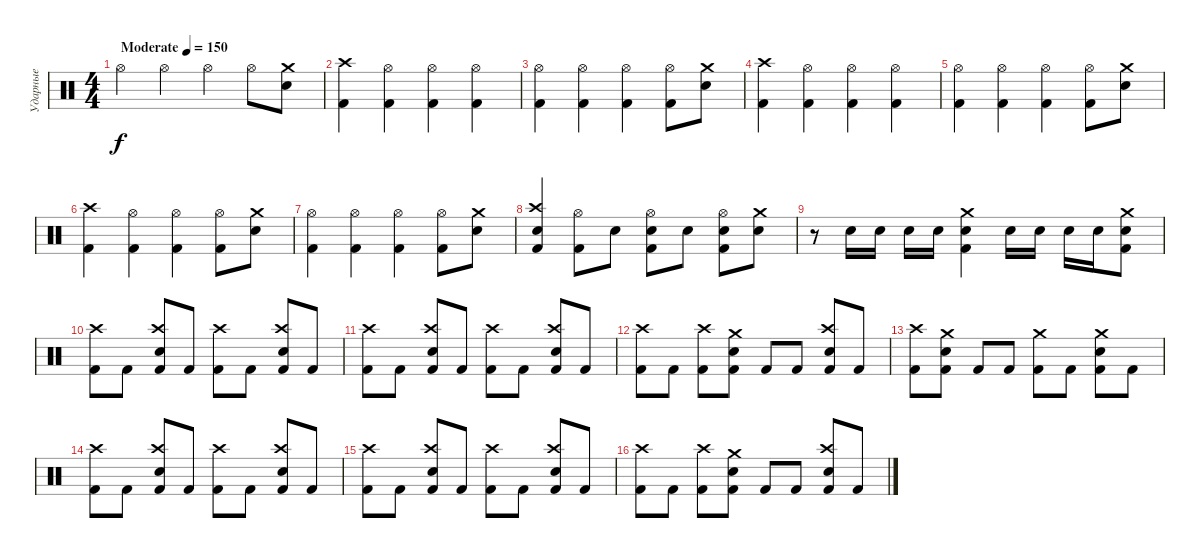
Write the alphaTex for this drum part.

\track ("Ударные" "Ударные") {instrument percussion}
\staff {score}
\articulation defaults
\ts (4 4)
\tempo (150 "Moderate")
\clef neutral
\ks c "Hi-Hat (open)".4{dy f} "Hi-Hat (open)".4 "Hi-Hat (open)".4 "Hi-Hat (open)".8
("Crash medium (hit)" "Electric Snare (hit)").8 |
("Crash high (hit)" "Kick (hit) 2").4 ("Hi-Hat (open)" "Kick (hit) 2").4 ("Hi-Hat (open)" "Kick (hit) 2").4 ("Hi-Hat (open)" "Kick (hit) 2").4 |
("Hi-Hat (open)" "Kick (hit) 2").4 ("Hi-Hat (open)" "Kick (hit) 2").4 ("Hi-Hat (open)" "Kick (hit) 2").4 ("Hi-Hat (open)" "Kick (hit) 2").8 ("Crash medium (hit)" "Electric Snare (hit)").8 |
("Crash high (hit)" "Kick (hit) 2").4 ("Hi-Hat (open)" "Kick (hit) 2").4 ("Hi-Hat (open)" "Kick (hit) 2").4 ("Hi-Hat (open)" "Kick (hit) 2").4 |
("Hi-Hat (open)" "Kick (hit) 2").4 ("Hi-Hat (open)" "Kick (hit) 2").4 ("Hi-Hat (open)" "Kick (hit) 2").4 ("Hi-Hat (open)" "Kick (hit) 2").8 ("Crash medium (hit)" "Electric Snare (hit)").8 |
("Crash high (hit)" "Kick (hit) 2").4 ("Hi-Hat (open)" "Kick (hit) 2").4 ("Hi-Hat (open)" "Kick (hit) 2").4 ("Hi-Hat (open)" "Kick (hit) 2").8 ("Crash medium (hit)" "Electric Snare (hit)").8 |
("Hi-Hat (open)" "Kick (hit) 2").4 ("Hi-Hat (open)" "Kick (hit) 2").4 ("Hi-Hat (open)" "Kick (hit) 2").4 ("Hi-Hat (open)" "Kick (hit) 2").8 ("Crash medium (hit)" "Electric Snare (hit)").8 |
("Crash high (hit)" "Electric Snare (hit)" "Kick (hit) 2").4 ("Hi-Hat (open)" "Kick (hit) 2").8 "Electric Snare (hit)".8 ("Hi-Hat (open)" "Electric Snare (hit)" "Kick (hit) 2").8 "Electric Snare (hit)".8 ("Hi-Hat (open)" "Electric Snare (hit)" "Kick (hit) 2").8 ("Crash medium (hit)" "Electric Snare (hit)").8 |
r.8 "Electric Snare (hit)".16 "Electric Snare (hit)".16 "Electric Snare (hit)".16 "Electric Snare (hit)".16 ("Crash medium (hit)" "Electric Snare (hit)" "Kick (hit) 2").4 "Electric Snare (hit)".16 "Electric Snare (hit)".16 "Electric Snare (hit)".16 "Electric Snare (hit)".16 ("Crash medium (hit)" "Electric Snare (hit)" "Kick (hit) 2").8 |
("Crash high (hit)" "Kick (hit) 2").8 "Kick (hit) 2".8 ("Crash high (hit)" "Electric Snare (hit)" "Kick (hit) 2").8 "Kick (hit) 2".8 ("Crash high (hit)" "Kick (hit) 2").8 "Kick (hit) 2".8 ("Crash high (hit)" "Electric Snare (hit)" "Kick (hit) 2").8 "Kick (hit) 2".8 |
("Crash high (hit)" "Kick (hit) 2").8 "Kick (hit) 2".8 ("Crash high (hit)" "Electric Snare (hit)" "Kick (hit) 2").8 "Kick (hit) 2".8 ("Crash high (hit)" "Kick (hit) 2").8 "Kick (hit) 2".8 ("Crash high (hit)" "Electric Snare (hit)" "Kick (hit) 2").8 "Kick (hit) 2".8 |
("Crash high (hit)" "Kick (hit) 2").8 "Kick (hit) 2".8 ("Crash high (hit)" "Kick (hit) 2").8 ("Crash medium (hit)" "Electric Snare (hit)" "Kick (hit) 2").8 "Kick (hit) 2".8 "Kick (hit) 2".8 ("Crash high (hit)" "Electric Snare (hit)" "Kick (hit) 2").8 "Kick (hit) 2".8 |
("Crash high (hit)" "Kick (hit) 2").8 ("Crash medium (hit)" "Electric Snare (hit)" "Kick (hit) 2").8 "Kick (hit) 2".8 "Kick (hit) 2".8 ("Crash medium (hit)" "Kick (hit) 2").8 "Kick (hit) 2".8 ("Crash medium (hit)" "Electric Snare (hit)" "Kick (hit) 2").8 "Kick (hit) 2".8 |
("Crash high (hit)" "Kick (hit) 2").8 "Kick (hit) 2".8 ("Crash high (hit)" "Electric Snare (hit)" "Kick (hit) 2").8 "Kick (hit) 2".8 ("Crash high (hit)" "Kick (hit) 2").8 "Kick (hit) 2".8 ("Crash high (hit)" "Electric Snare (hit)" "Kick (hit) 2").8 "Kick (hit) 2".8 |
("Crash high (hit)" "Kick (hit) 2").8 "Kick (hit) 2".8 ("Crash high (hit)" "Electric Snare (hit)" "Kick (hit) 2").8 "Kick (hit) 2".8 ("Crash high (hit)" "Kick (hit) 2").8 "Kick (hit) 2".8 ("Crash high (hit)" "Electric Snare (hit)" "Kick (hit) 2").8 "Kick (hit) 2".8 |
("Crash high (hit)" "Kick (hit) 2").8 "Kick (hit) 2".8 ("Crash high (hit)" "Kick (hit) 2").8 ("Crash medium (hit)" "Electric Snare (hit)" "Kick (hit) 2").8 "Kick (hit) 2".8 "Kick (hit) 2".8 ("Crash high (hit)" "Electric Snare (hit)" "Kick (hit) 2").8 "Kick (hit) 2".8
